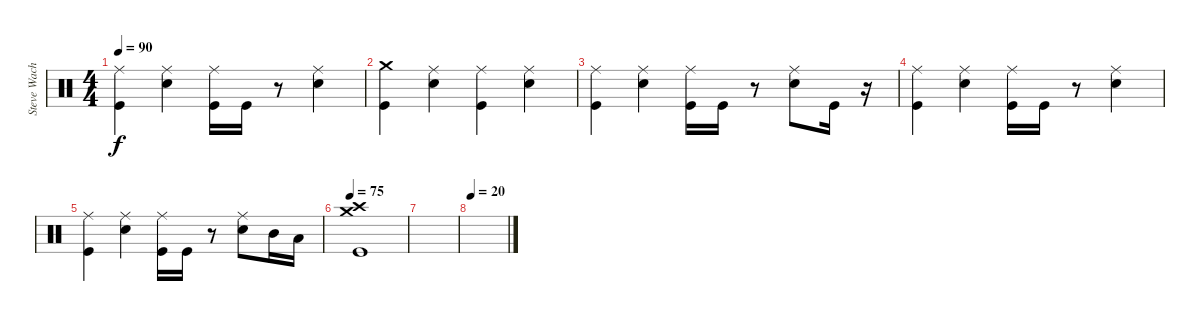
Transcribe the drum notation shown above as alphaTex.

\track ("Steve Wacholz" "Steve Wach") {instrument percussion}
\staff {score}
\articulation defaults
\ts (4 4)
\tempo 90
\clef neutral
\ks c
("Ride (middle)" "Kick (hit)").4{dy f} ("Ride (middle)" "Electric Snare (hit)").4 ("Ride (middle)" "Kick (hit)").16 "Kick (hit)".16 r.8 ("Ride (middle)" "Electric Snare (hit)").4 |
("Crash medium (hit)" "Kick (hit)").4 ("Ride (middle)" "Electric Snare (hit)").4 ("Ride (middle)" "Kick (hit)").4 ("Ride (middle)" "Electric Snare (hit)").4 |
("Ride (middle)" "Kick (hit)").4 ("Ride (middle)" "Electric Snare (hit)").4 ("Ride (middle)" "Kick (hit)").16 "Kick (hit)".16 r.8 ("Ride (middle)" "Electric Snare (hit)").8 "Kick (hit)".16 r.16 |
("Ride (middle)" "Kick (hit)").4 ("Ride (middle)" "Electric Snare (hit)").4 ("Ride (middle)" "Kick (hit)").16 "Kick (hit)".16 r.8 ("Ride (middle)" "Electric Snare (hit)").4 |
("Ride (middle)" "Kick (hit)").4 ("Ride (middle)" "Electric Snare (hit)").4 ("Ride (middle)" "Kick (hit)").16 "Kick (hit)".16 r.8 ("Ride (middle)" "Electric Snare (hit)").8 "Mid Tom (hit)".16 "Low Tom (hit)".16 |
\tempo 75
("Crash medium (hit)" "Crash high (hit)" "Kick (hit)").1 |
|
\tempo 20
